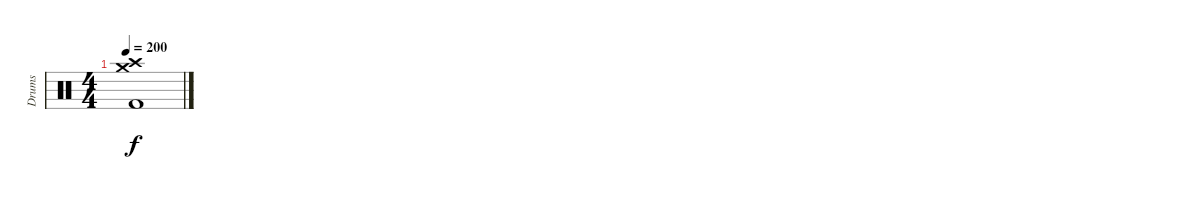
\track ("Drums" "Drums") {instrument percussion}
\staff {score}
\articulation defaults
\ts (4 4)
\tempo 200
\clef neutral
\ks c
("Kick (hit) 2" "Crash medium (hit)" "Crash high (hit)").1{dy f}
